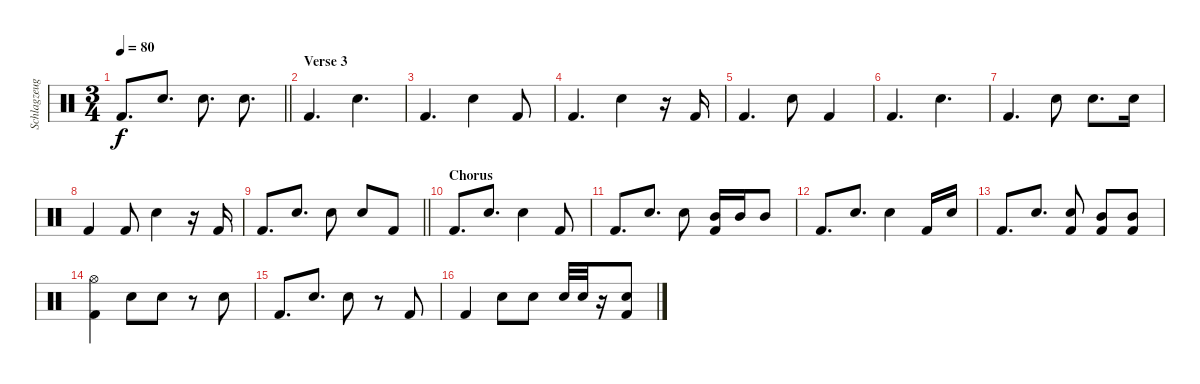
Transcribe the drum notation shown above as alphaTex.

\track ("Schlagzeug" "Schlagzeug") {instrument percussion}
\staff {score}
\articulation defaults
\ts (3 4)
\tempo 80
\clef neutral
\barLineRight lightlight
\ks c "Kick (hit) 2".8{d dy f} "Snare (hit) 2".8{d} "Snare (hit) 2".8{d} "Snare (hit) 2".8{d}
|
\section ("" "Verse 3")
"Kick (hit) 2".4{d} "Snare (hit) 2".4{d} |
"Kick (hit) 2".4{d} "Snare (hit) 2".4 "Kick (hit) 2".8 |
"Kick (hit) 2".4{d} "Snare (hit) 2".4 r.16 "Kick (hit) 2".16 |
"Kick (hit) 2".4{d} "Snare (hit) 2".8 "Kick (hit) 2".4 |
"Kick (hit) 2".4{d} "Snare (hit) 2".4{d} |
"Kick (hit) 2".4{d} "Snare (hit) 2".8 "Snare (hit) 2".8{d} "Snare (hit) 2".16 |
"Kick (hit) 2".4 "Kick (hit) 2".8 "Snare (hit) 2".4 r.16 "Kick (hit) 2".16 |
\barLineRight lightlight "Kick (hit) 2".8{d} "Snare (hit) 2".8{d} "Snare (hit) 2".8 "Snare (hit) 2".8 "Kick (hit) 2".8
|
\section ("" "Chorus")
"Kick (hit) 2".8{d} "Snare (hit) 2".8{d} "Snare (hit) 2".4 "Kick (hit) 2".8 |
"Kick (hit) 2".8{d} "Snare (hit) 2".8{d} "Snare (hit) 2".8 ("Mid Tom (hit)" "Kick (hit) 2").16 "Mid Tom (hit)".16 "Mid Tom (hit)".8 |
"Kick (hit) 2".8{d} "Snare (hit) 2".8{d} "Snare (hit) 2".4 "Kick (hit) 2".16 "Snare (hit) 2".16 |
"Kick (hit) 2".8{d} "Snare (hit) 2".8{d} ("Snare (hit) 2" "Kick (hit) 2").8 ("Mid Tom (hit)" "Kick (hit) 2").8 ("Mid Tom (hit)" "Kick (hit) 2").8 |
("Hi-Hat (open)" "Kick (hit) 2").4 "Snare (hit) 2".8 "Snare (hit) 2".8 r.8 "Snare (hit) 2".8 |
"Kick (hit) 2".8{d} "Snare (hit) 2".8{d} "Snare (hit) 2".8 r.8 "Kick (hit) 2".8 |
"Kick (hit) 2".4 "Snare (hit) 2".8 "Snare (hit) 2".8 "Snare (hit) 2".32 "Snare (hit) 2".32 r.16 ("Snare (hit) 2" "Kick (hit) 2").8
